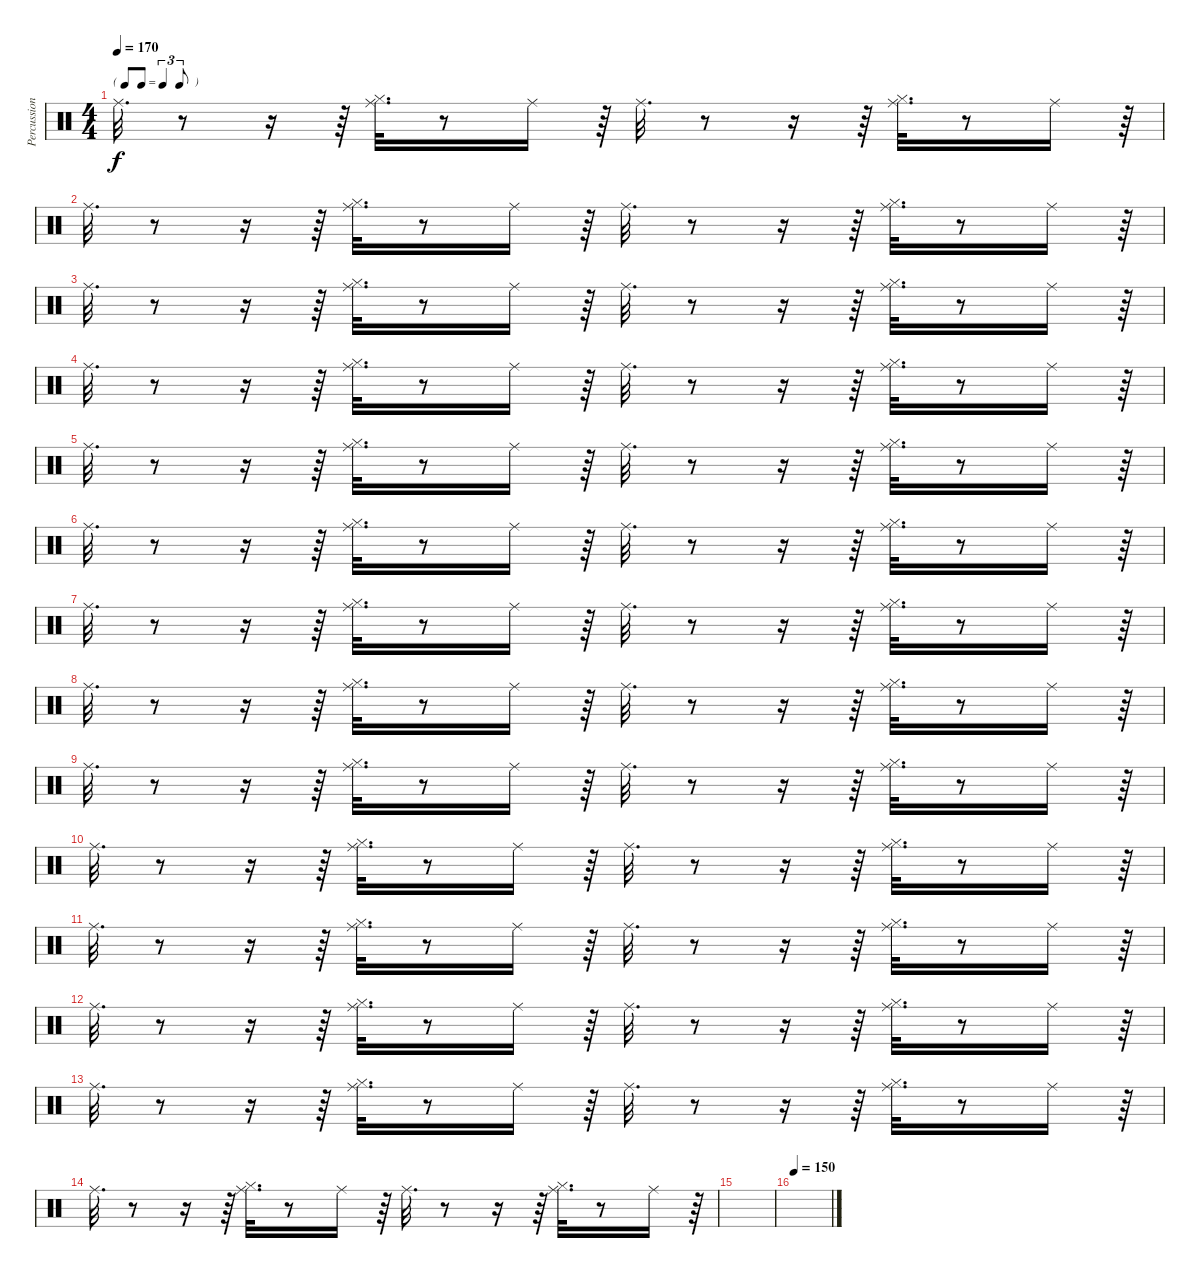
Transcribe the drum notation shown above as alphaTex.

\track ("Percussions" "Percussion") {instrument percussion}
\staff {score}
\articulation defaults
\ts (4 4)
\tf triplet8th
\tempo 170
\clef neutral
\ks c "Ride (middle)".32{d dy f}
r.8 r.16 r.64 ("Hi-Hat (closed)" "Ride (middle)").32{d} r.8 "Ride (middle)".16 r.64 "Ride (middle)".32{d} r.8 r.16 r.64 ("Hi-Hat (closed)" "Ride (middle)").32{d} r.8 "Ride (middle)".16 r.64 |
"Ride (middle)".32{d} r.8 r.16 r.64 ("Hi-Hat (closed)" "Ride (middle)").32{d} r.8 "Ride (middle)".16 r.64 "Ride (middle)".32{d} r.8 r.16 r.64 ("Hi-Hat (closed)" "Ride (middle)").32{d} r.8 "Ride (middle)".16 r.64 |
"Ride (middle)".32{d} r.8 r.16 r.64 ("Hi-Hat (closed)" "Ride (middle)").32{d} r.8 "Ride (middle)".16 r.64 "Ride (middle)".32{d} r.8 r.16 r.64 ("Hi-Hat (closed)" "Ride (middle)").32{d} r.8 "Ride (middle)".16 r.64 |
"Ride (middle)".32{d} r.8 r.16 r.64 ("Hi-Hat (closed)" "Ride (middle)").32{d} r.8 "Ride (middle)".16 r.64 "Ride (middle)".32{d} r.8 r.16 r.64 ("Hi-Hat (closed)" "Ride (middle)").32{d} r.8 "Ride (middle)".16 r.64 |
"Ride (middle)".32{d} r.8 r.16 r.64 ("Hi-Hat (closed)" "Ride (middle)").32{d} r.8 "Ride (middle)".16 r.64 "Ride (middle)".32{d} r.8 r.16 r.64 ("Hi-Hat (closed)" "Ride (middle)").32{d} r.8 "Ride (middle)".16 r.64 |
"Ride (middle)".32{d} r.8 r.16 r.64 ("Hi-Hat (closed)" "Ride (middle)").32{d} r.8 "Ride (middle)".16 r.64 "Ride (middle)".32{d} r.8 r.16 r.64 ("Hi-Hat (closed)" "Ride (middle)").32{d} r.8 "Ride (middle)".16 r.64 |
"Ride (middle)".32{d} r.8 r.16 r.64 ("Hi-Hat (closed)" "Ride (middle)").32{d} r.8 "Ride (middle)".16 r.64 "Ride (middle)".32{d} r.8 r.16 r.64 ("Hi-Hat (closed)" "Ride (middle)").32{d} r.8 "Ride (middle)".16 r.64 |
"Ride (middle)".32{d} r.8 r.16 r.64 ("Hi-Hat (closed)" "Ride (middle)").32{d} r.8 "Ride (middle)".16 r.64 "Ride (middle)".32{d} r.8 r.16 r.64 ("Hi-Hat (closed)" "Ride (middle)").32{d} r.8 "Ride (middle)".16 r.64 |
"Ride (middle)".32{d} r.8 r.16 r.64 ("Hi-Hat (closed)" "Ride (middle)").32{d} r.8 "Ride (middle)".16 r.64 "Ride (middle)".32{d} r.8 r.16 r.64 ("Hi-Hat (closed)" "Ride (middle)").32{d} r.8 "Ride (middle)".16 r.64 |
"Ride (middle)".32{d} r.8 r.16 r.64 ("Hi-Hat (closed)" "Ride (middle)").32{d} r.8 "Ride (middle)".16 r.64 "Ride (middle)".32{d} r.8 r.16 r.64 ("Hi-Hat (closed)" "Ride (middle)").32{d} r.8 "Ride (middle)".16 r.64 |
"Ride (middle)".32{d} r.8 r.16 r.64 ("Hi-Hat (closed)" "Ride (middle)").32{d} r.8 "Ride (middle)".16 r.64 "Ride (middle)".32{d} r.8 r.16 r.64 ("Hi-Hat (closed)" "Ride (middle)").32{d} r.8 "Ride (middle)".16 r.64 |
"Ride (middle)".32{d} r.8 r.16 r.64 ("Hi-Hat (closed)" "Ride (middle)").32{d} r.8 "Ride (middle)".16 r.64 "Ride (middle)".32{d} r.8 r.16 r.64 ("Hi-Hat (closed)" "Ride (middle)").32{d} r.8 "Ride (middle)".16 r.64 |
"Ride (middle)".32{d} r.8 r.16 r.64 ("Hi-Hat (closed)" "Ride (middle)").32{d} r.8 "Ride (middle)".16 r.64 "Ride (middle)".32{d} r.8 r.16 r.64 ("Hi-Hat (closed)" "Ride (middle)").32{d} r.8 "Ride (middle)".16 r.64 |
"Ride (middle)".32{d} r.8 r.16 r.64 ("Hi-Hat (closed)" "Ride (middle)").32{d} r.8 "Ride (middle)".16 r.64 "Ride (middle)".32{d} r.8 r.16 r.64 ("Hi-Hat (closed)" "Ride (middle)").32{d} r.8 "Ride (middle)".16 r.64 |
|
\tempo 150
